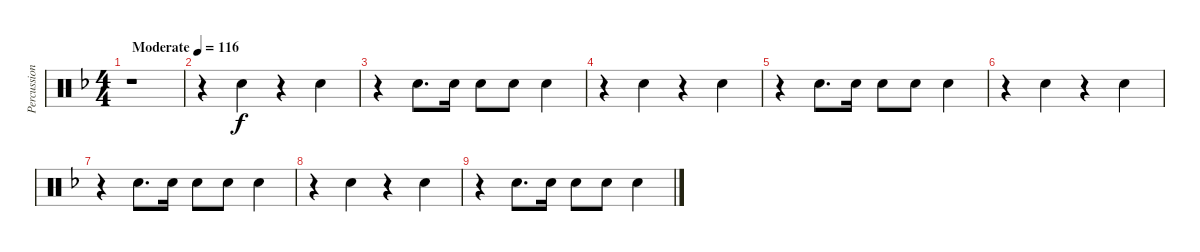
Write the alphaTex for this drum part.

\track ("Percussion" "Percussion") {instrument percussion}
\staff {score}
\articulation defaults
\ts (4 4)
\tempo (116 "Moderate")
\clef neutral
\ks f
r.1{dy f} |
r.4 "Hand Clap (hit)".4 r.4 "Hand Clap (hit)".4 |
r.4 "Hand Clap (hit)".8{d} "Hand Clap (hit)".16 "Hand Clap (hit)".8 "Hand Clap (hit)".8 "Hand Clap (hit)".4 |
r.4 "Hand Clap (hit)".4 r.4 "Hand Clap (hit)".4 |
r.4 "Hand Clap (hit)".8{d} "Hand Clap (hit)".16 "Hand Clap (hit)".8 "Hand Clap (hit)".8 "Hand Clap (hit)".4 |
r.4 "Hand Clap (hit)".4 r.4 "Hand Clap (hit)".4 |
r.4 "Hand Clap (hit)".8{d} "Hand Clap (hit)".16 "Hand Clap (hit)".8 "Hand Clap (hit)".8 "Hand Clap (hit)".4 |
r.4 "Hand Clap (hit)".4 r.4 "Hand Clap (hit)".4 |
r.4 "Hand Clap (hit)".8{d} "Hand Clap (hit)".16 "Hand Clap (hit)".8 "Hand Clap (hit)".8 "Hand Clap (hit)".4
